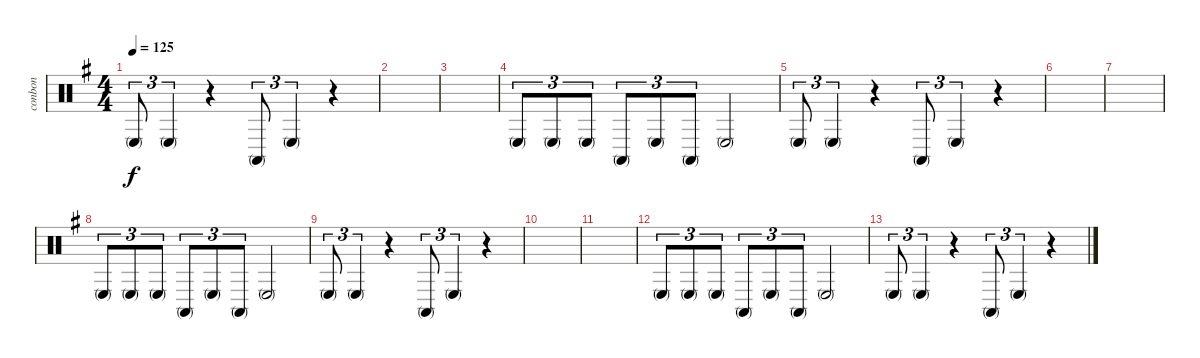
\defaultSystemsLayout 4
\bracketExtendMode groupsimilarinstruments
\otherSystemsTrackNameOrientation horizontal
\track ("Bongos N Congas" "conbon") {instrument percussion}
\staff {score}
\articulation defaults
\ts (4 4)
\tempo 125
\clef neutral
\scale
0.333333
\ks g "Conga low (mute)"{acc forcenatural}.8{tu (3 2) dy f beam Up} "Conga low (mute)"{acc forcenatural}.4{tu (3 2) beam Up}
r.4{beam Up} "Conga high (mute)"{acc forcenatural}.8{tu (3 2) beam Up} "Conga low (mute)"{acc forcenatural}.4{tu (3 2) beam Up} r.4{beam Up} |
\scale
0.333333 |
\scale
0.333333 |
\scale
0.333333 "Conga low (mute)"{acc forcenatural}.8{tu (3 2) beam Up} "Conga low (mute)"{acc forcenatural}.8{tu (3 2) beam Up} "Conga low (mute)"{acc forcenatural}.8{tu (3 2) beam Up} "Conga high (mute)"{acc forcenatural}.8{tu (3 2) beam Up} "Conga low (mute)"{acc forcenatural}.8{tu (3 2) beam Up} "Conga high (mute)"{acc forcenatural}.8{tu (3 2) beam Up} "Conga low (mute)"{acc forcenatural}.2{beam Up} |
\scale
0.333333 "Conga low (mute)"{acc forcenatural}.8{tu (3 2) beam Up} "Conga low (mute)"{acc forcenatural}.4{tu (3 2) beam Up} r.4{beam Up} "Conga high (mute)"{acc forcenatural}.8{tu (3 2) beam Up} "Conga low (mute)"{acc forcenatural}.4{tu (3 2) beam Up} r.4{beam Up} |
\scale
0.333333 |
\scale
0.333333 |
\scale
0.333333 "Conga low (mute)"{acc forcenatural}.8{tu (3 2) beam Up} "Conga low (mute)"{acc forcenatural}.8{tu (3 2) beam Up} "Conga low (mute)"{acc forcenatural}.8{tu (3 2) beam Up} "Conga high (mute)"{acc forcenatural}.8{tu (3 2) beam Up} "Conga low (mute)"{acc forcenatural}.8{tu (3 2) beam Up} "Conga high (mute)"{acc forcenatural}.8{tu (3 2) beam Up} "Conga low (mute)"{acc forcenatural}.2{beam Up} |
\scale
0.333333 "Conga low (mute)"{acc forcenatural}.8{tu (3 2) beam Up} "Conga low (mute)"{acc forcenatural}.4{tu (3 2) beam Up} r.4{beam Up} "Conga high (mute)"{acc forcenatural}.8{tu (3 2) beam Up} "Conga low (mute)"{acc forcenatural}.4{tu (3 2) beam Up} r.4{beam Up} |
\scale
0.333333 |
\scale
0.333333 |
\scale
0.333333 "Conga low (mute)"{acc forcenatural}.8{tu (3 2) beam Up} "Conga low (mute)"{acc forcenatural}.8{tu (3 2) beam Up} "Conga low (mute)"{acc forcenatural}.8{tu (3 2) beam Up} "Conga high (mute)"{acc forcenatural}.8{tu (3 2) beam Up} "Conga low (mute)"{acc forcenatural}.8{tu (3 2) beam Up} "Conga high (mute)"{acc forcenatural}.8{tu (3 2) beam Up} "Conga low (mute)"{acc forcenatural}.2{beam Up} |
\scale
0.333333 "Conga low (mute)"{acc forcenatural}.8{tu (3 2) beam Up} "Conga low (mute)"{acc forcenatural}.4{tu (3 2) beam Up} r.4{beam Up} "Conga high (mute)"{acc forcenatural}.8{tu (3 2) beam Up} "Conga low (mute)"{acc forcenatural}.4{tu (3 2) beam Up} r.4{beam Up} |
\scale
0.333333 |
\scale
0.333333 |
\scale
0.333333
